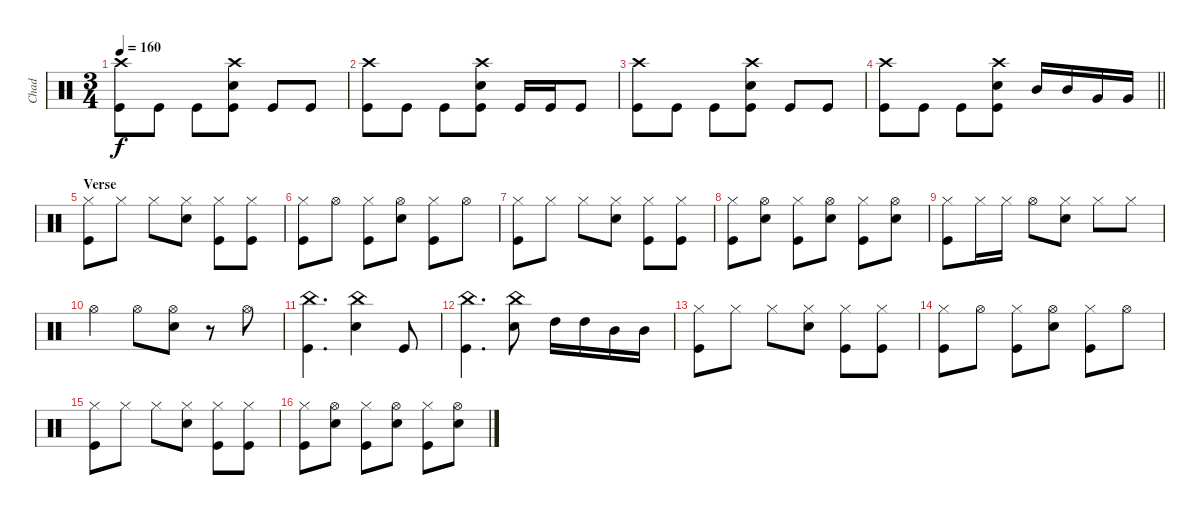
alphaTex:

\track ("Chad" "Chad") {instrument percussion}
\staff {score}
\articulation defaults
\ts (3 4)
\tempo 160
\clef neutral
\ks c
("Crash high (hit)" "Kick (hit)").8{dy f} "Kick (hit)".8 "Kick (hit)".8 ("Kick (hit)" "Snare (hit) 2" "Crash high (hit)").8 "Kick (hit)".8 "Kick (hit)".8 |
("Crash high (hit)" "Kick (hit)").8 "Kick (hit)".8 "Kick (hit)".8 ("Kick (hit)" "Snare (hit) 2" "Crash high (hit)").8 "Kick (hit)".16 "Kick (hit)".16 "Kick (hit)".8 |
("Crash high (hit)" "Kick (hit)").8 "Kick (hit)".8 "Kick (hit)".8 ("Kick (hit)" "Snare (hit) 2" "Crash high (hit)").8 "Kick (hit)".8 "Kick (hit)".8 |
\barLineRight lightlight
("Crash high (hit)" "Kick (hit)").8 "Kick (hit)".8 "Kick (hit)".8 ("Kick (hit)" "Snare (hit) 2" "Crash high (hit)").8 "Mid Tom (hit)".16 "Mid Tom (hit)".16 "Very Low Tom (hit)".16 "Very Low Tom (hit)".16 |
\section ("" "Verse")
("Hi-Hat (closed)" "Kick (hit)").8 "Hi-Hat (closed)".8 "Hi-Hat (closed)".8 ("Hi-Hat (closed)" "Snare (hit) 2").8 ("Hi-Hat (closed)" "Kick (hit)").8 ("Hi-Hat (closed)" "Kick (hit)").8 |
("Hi-Hat (closed)" "Kick (hit)").8 "Hi-Hat (open)".8 ("Hi-Hat (closed)" "Kick (hit)").8 ("Hi-Hat (open)" "Snare (hit) 2").8 ("Hi-Hat (closed)" "Kick (hit)").8 "Hi-Hat (open)".8 |
("Hi-Hat (closed)" "Kick (hit)").8 "Hi-Hat (closed)".8 "Hi-Hat (closed)".8 ("Hi-Hat (closed)" "Snare (hit) 2").8 ("Hi-Hat (closed)" "Kick (hit)").8 ("Hi-Hat (closed)" "Kick (hit)").8 |
("Hi-Hat (closed)" "Kick (hit)").8 ("Hi-Hat (open)" "Snare (hit) 2").8 ("Hi-Hat (closed)" "Kick (hit)").8 ("Hi-Hat (open)" "Snare (hit) 2").8 ("Hi-Hat (closed)" "Kick (hit)").8 ("Hi-Hat (open)" "Snare (hit) 2").8 |
("Hi-Hat (closed)" "Kick (hit)").8 "Hi-Hat (closed)".16 "Hi-Hat (closed)".16 "Hi-Hat (open)".8 ("Hi-Hat (closed)" "Snare (hit) 2").8 "Hi-Hat (closed)".8 "Hi-Hat (closed)".8 |
"Hi-Hat (open)".4 "Hi-Hat (open)".8 ("Hi-Hat (open)" "Snare (hit) 2").8 r.8 "Hi-Hat (open)".8 |
("China (hit)" "Kick (hit)").4{d} ("China (hit)" "Snare (hit) 2").4 "Kick (hit)".8 |
("China (hit)" "Kick (hit)").4{d} ("China (hit)" "Snare (hit) 2").8 "High Tom (hit)".16 "High Tom (hit)".16 "Mid Tom (hit)".16 "Mid Tom (hit)".16 |
("Hi-Hat (closed)" "Kick (hit)").8 "Hi-Hat (closed)".8 "Hi-Hat (closed)".8 ("Hi-Hat (closed)" "Snare (hit) 2").8 ("Hi-Hat (closed)" "Kick (hit)").8 ("Hi-Hat (closed)" "Kick (hit)").8 |
("Hi-Hat (closed)" "Kick (hit)").8 "Hi-Hat (open)".8 ("Hi-Hat (closed)" "Kick (hit)").8 ("Hi-Hat (open)" "Snare (hit) 2").8 ("Hi-Hat (closed)" "Kick (hit)").8 "Hi-Hat (open)".8 |
("Hi-Hat (closed)" "Kick (hit)").8 "Hi-Hat (closed)".8 "Hi-Hat (closed)".8 ("Hi-Hat (closed)" "Snare (hit) 2").8 ("Hi-Hat (closed)" "Kick (hit)").8 ("Hi-Hat (closed)" "Kick (hit)").8 |
("Hi-Hat (closed)" "Kick (hit)").8 ("Hi-Hat (open)" "Snare (hit) 2").8 ("Hi-Hat (closed)" "Kick (hit)").8 ("Hi-Hat (open)" "Snare (hit) 2").8 ("Hi-Hat (closed)" "Kick (hit)").8 ("Hi-Hat (open)" "Snare (hit) 2").8
